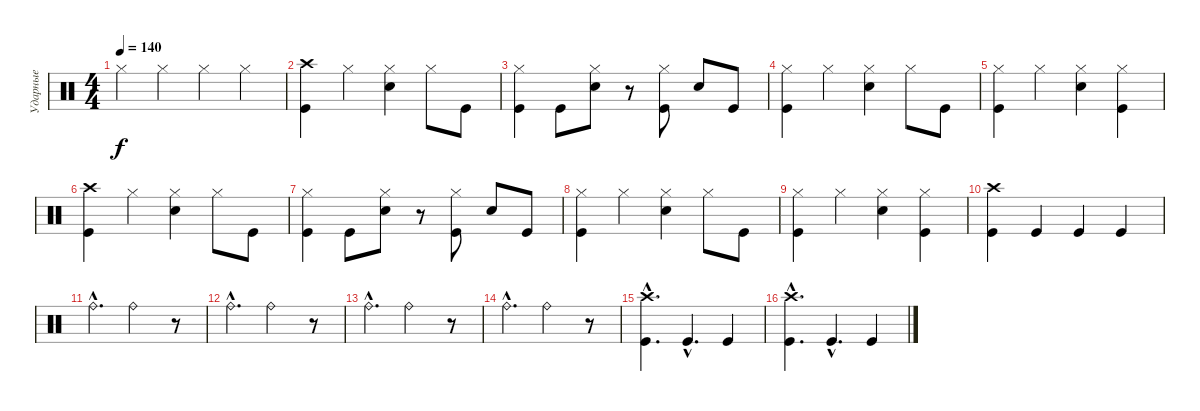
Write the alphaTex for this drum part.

\track ("Ударные" "Ударные") {instrument percussion}
\staff {score}
\articulation defaults
\ts (4 4)
\tempo 140
\clef neutral
\ks c "Hi-Hat (closed)".4{dy f} "Hi-Hat (closed)".4 "Hi-Hat (closed)".4 "Hi-Hat (closed)".4
|
("Crash high (hit)" "Kick (hit)").4 "Hi-Hat (closed)".4 ("Hi-Hat (closed)" "Electric Snare (hit)").4 "Hi-Hat (closed)".8 "Kick (hit)".8 |
("Hi-Hat (closed)" "Kick (hit)").4 "Kick (hit)".8 ("Hi-Hat (closed)" "Electric Snare (hit)").8 r.8 ("Hi-Hat (closed)" "Kick (hit)").8 "Electric Snare (hit)".8 "Kick (hit)".8 |
("Hi-Hat (closed)" "Kick (hit)").4 "Hi-Hat (closed)".4 ("Hi-Hat (closed)" "Electric Snare (hit)").4 "Hi-Hat (closed)".8 "Kick (hit)".8 |
("Hi-Hat (closed)" "Kick (hit)").4 "Hi-Hat (closed)".4 ("Hi-Hat (closed)" "Electric Snare (hit)").4 ("Hi-Hat (closed)" "Kick (hit)").4 |
("Crash high (hit)" "Kick (hit)").4 "Hi-Hat (closed)".4 ("Hi-Hat (closed)" "Electric Snare (hit)").4 "Hi-Hat (closed)".8 "Kick (hit)".8 |
("Hi-Hat (closed)" "Kick (hit)").4 "Kick (hit)".8 ("Hi-Hat (closed)" "Electric Snare (hit)").8 r.8 ("Hi-Hat (closed)" "Kick (hit)").8 "Electric Snare (hit)".8 "Kick (hit)".8 |
("Hi-Hat (closed)" "Kick (hit)").4 "Hi-Hat (closed)".4 ("Hi-Hat (closed)" "Electric Snare (hit)").4 "Hi-Hat (closed)".8 "Kick (hit)".8 |
("Hi-Hat (closed)" "Kick (hit)").4 "Hi-Hat (closed)".4 ("Hi-Hat (closed)" "Electric Snare (hit)").4 ("Hi-Hat (closed)" "Kick (hit)").4 |
("Crash high (hit)" "Kick (hit)").4 "Kick (hit)".4 "Kick (hit)".4 "Kick (hit)".4 |
"Ride (bell)"{hac}.4{d} "Ride (bell)".2 r.8 |
"Ride (bell)"{hac}.4{d} "Ride (bell)".2 r.8 |
"Ride (bell)"{hac}.4{d} "Ride (bell)".2 r.8 |
"Ride (bell)"{hac}.4{d} "Ride (bell)".2 r.8 |
("Crash high (hit)"{hac} "Kick (hit)"{hac}).4{d} "Kick (hit)"{hac}.4{d} "Kick (hit)".4 |
("Crash high (hit)"{hac} "Kick (hit)"{hac}).4{d} "Kick (hit)"{hac}.4{d} "Kick (hit)".4
